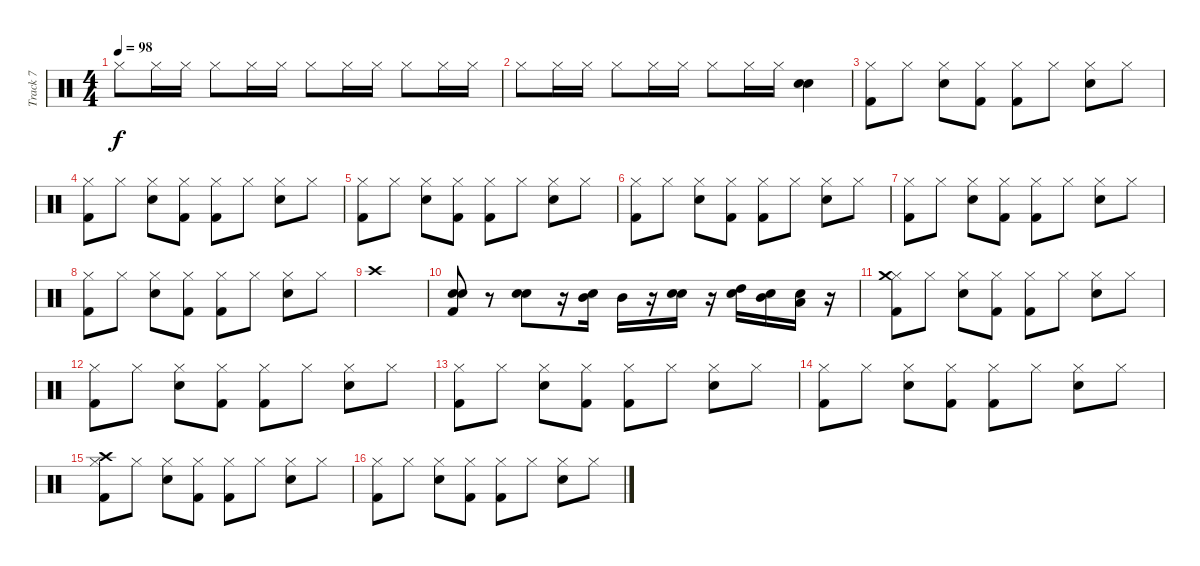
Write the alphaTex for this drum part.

\track ("Track 7" "Track 7") {instrument percussion}
\staff {score}
\articulation defaults
\ts (4 4)
\tempo 98
\clef neutral
\ks c "Hi-Hat (closed)".8{dy f} "Hi-Hat (closed)".16 "Hi-Hat (closed)".16 "Hi-Hat (closed)".8 "Hi-Hat (closed)".16 "Hi-Hat (closed)".16 "Hi-Hat (closed)".8 "Hi-Hat (closed)".16 "Hi-Hat (closed)".16 "Hi-Hat (closed)".8 "Hi-Hat (closed)".16 "Hi-Hat (closed)".16
|
"Hi-Hat (closed)".8 "Hi-Hat (closed)".16 "Hi-Hat (closed)".16 "Hi-Hat (closed)".8 "Hi-Hat (closed)".16 "Hi-Hat (closed)".16 "Hi-Hat (closed)".8 "Hi-Hat (closed)".16 "Hi-Hat (closed)".16 ("Electric Snare (hit)" "Electric Snare (hit)").4 |
("Hi-Hat (closed)" "Kick (hit) 2").8 "Hi-Hat (closed)".8 ("Hi-Hat (closed)" "Electric Snare (hit)").8 ("Hi-Hat (closed)" "Kick (hit) 2").8 ("Hi-Hat (closed)" "Kick (hit) 2").8 "Hi-Hat (closed)".8 ("Hi-Hat (closed)" "Electric Snare (hit)").8 "Hi-Hat (closed)".8 |
("Hi-Hat (closed)" "Kick (hit) 2").8 "Hi-Hat (closed)".8 ("Hi-Hat (closed)" "Electric Snare (hit)").8 ("Hi-Hat (closed)" "Kick (hit) 2").8 ("Hi-Hat (closed)" "Kick (hit) 2").8 "Hi-Hat (closed)".8 ("Hi-Hat (closed)" "Electric Snare (hit)").8 "Hi-Hat (closed)".8 |
("Hi-Hat (closed)" "Kick (hit) 2").8 "Hi-Hat (closed)".8 ("Hi-Hat (closed)" "Electric Snare (hit)").8 ("Hi-Hat (closed)" "Kick (hit) 2").8 ("Hi-Hat (closed)" "Kick (hit) 2").8 "Hi-Hat (closed)".8 ("Hi-Hat (closed)" "Electric Snare (hit)").8 "Hi-Hat (closed)".8 |
("Hi-Hat (closed)" "Kick (hit) 2").8 "Hi-Hat (closed)".8 ("Hi-Hat (closed)" "Electric Snare (hit)").8 ("Hi-Hat (closed)" "Kick (hit) 2").8 ("Hi-Hat (closed)" "Kick (hit) 2").8 "Hi-Hat (closed)".8 ("Hi-Hat (closed)" "Electric Snare (hit)").8 "Hi-Hat (closed)".8 |
("Hi-Hat (closed)" "Kick (hit) 2").8 "Hi-Hat (closed)".8 ("Hi-Hat (closed)" "Electric Snare (hit)").8 ("Hi-Hat (closed)" "Kick (hit) 2").8 ("Hi-Hat (closed)" "Kick (hit) 2").8 "Hi-Hat (closed)".8 ("Hi-Hat (closed)" "Electric Snare (hit)").8 "Hi-Hat (closed)".8 |
("Hi-Hat (closed)" "Kick (hit) 2").8 "Hi-Hat (closed)".8 ("Hi-Hat (closed)" "Electric Snare (hit)").8 ("Hi-Hat (closed)" "Kick (hit) 2").8 ("Hi-Hat (closed)" "Kick (hit) 2").8 "Hi-Hat (closed)".8 ("Hi-Hat (closed)" "Electric Snare (hit)").8 "Hi-Hat (closed)".8 |
"Crash high (hit)".1 |
("Electric Snare (hit)" "Electric Snare (hit)" "Kick (hit) 2").8 r.8 ("Electric Snare (hit)" "Electric Snare (hit)").8 r.16 ("Mid Tom (hit)" "Electric Snare (hit)").16 "Mid Tom (hit)".16 r.16 ("Electric Snare (hit)" "Electric Snare (hit)").16 r.16 ("Electric Snare (hit)" "High Tom (hit)").16 ("Electric Snare (hit)" "Mid Tom (hit)").16 ("Electric Snare (hit)" "Low Tom (hit)").16 r.16 |
("Hi-Hat (closed)" "Crash medium (hit)" "Kick (hit) 2").8 "Hi-Hat (closed)".8 ("Hi-Hat (closed)" "Electric Snare (hit)").8 ("Hi-Hat (closed)" "Kick (hit) 2").8 ("Hi-Hat (closed)" "Kick (hit) 2").8 "Hi-Hat (closed)".8 ("Hi-Hat (closed)" "Electric Snare (hit)").8 "Hi-Hat (closed)".8 |
("Hi-Hat (closed)" "Kick (hit) 2").8 "Hi-Hat (closed)".8 ("Hi-Hat (closed)" "Electric Snare (hit)").8 ("Hi-Hat (closed)" "Kick (hit) 2").8 ("Hi-Hat (closed)" "Kick (hit) 2").8 "Hi-Hat (closed)".8 ("Hi-Hat (closed)" "Electric Snare (hit)").8 "Hi-Hat (closed)".8 |
("Hi-Hat (closed)" "Kick (hit) 2").8 "Hi-Hat (closed)".8 ("Hi-Hat (closed)" "Electric Snare (hit)").8 ("Hi-Hat (closed)" "Kick (hit) 2").8 ("Hi-Hat (closed)" "Kick (hit) 2").8 "Hi-Hat (closed)".8 ("Hi-Hat (closed)" "Electric Snare (hit)").8 "Hi-Hat (closed)".8 |
("Hi-Hat (closed)" "Kick (hit) 2").8 "Hi-Hat (closed)".8 ("Hi-Hat (closed)" "Electric Snare (hit)").8 ("Hi-Hat (closed)" "Kick (hit) 2").8 ("Hi-Hat (closed)" "Kick (hit) 2").8 "Hi-Hat (closed)".8 ("Hi-Hat (closed)" "Electric Snare (hit)").8 "Hi-Hat (closed)".8 |
("Hi-Hat (closed)" "Crash high (hit)" "Kick (hit) 2").8 "Hi-Hat (closed)".8 ("Hi-Hat (closed)" "Electric Snare (hit)").8 ("Hi-Hat (closed)" "Kick (hit) 2").8 ("Hi-Hat (closed)" "Kick (hit) 2").8 "Hi-Hat (closed)".8 ("Hi-Hat (closed)" "Electric Snare (hit)").8 "Hi-Hat (closed)".8 |
("Hi-Hat (closed)" "Kick (hit) 2").8 "Hi-Hat (closed)".8 ("Hi-Hat (closed)" "Electric Snare (hit)").8 ("Hi-Hat (closed)" "Kick (hit) 2").8 ("Hi-Hat (closed)" "Kick (hit) 2").8 "Hi-Hat (closed)".8 ("Hi-Hat (closed)" "Electric Snare (hit)").8 "Hi-Hat (closed)".8
